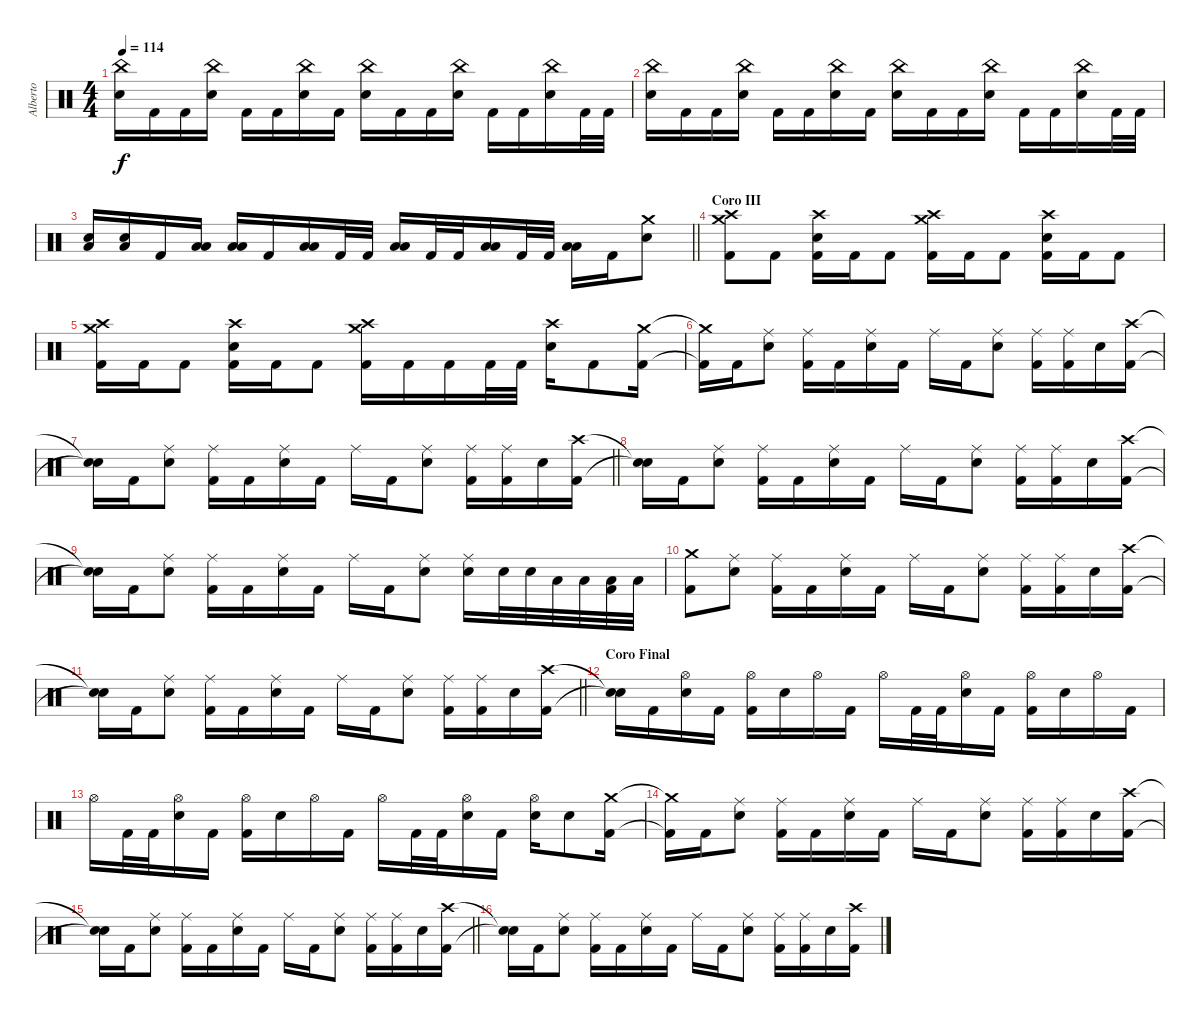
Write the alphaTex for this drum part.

\track ("Alberto" "Alberto") {instrument percussion}
\staff
\articulation defaults
\ts (4 4)
\tempo 114
\clef neutral
\ks c
("China (hit)" "Electric Snare (hit)").16{dy f} "Kick (hit) 2".16 "Kick (hit) 2".16 ("China (hit)" "Electric Snare (hit)").16 "Kick (hit) 2".16 "Kick (hit) 2".16 ("China (hit)" "Electric Snare (hit)").16 "Kick (hit) 2".16 ("China (hit)" "Electric Snare (hit)").16 "Kick (hit) 2".16 "Kick (hit) 2".16 ("China (hit)" "Electric Snare (hit)").16 "Kick (hit) 2".16 "Kick (hit) 2".16 ("China (hit)" "Electric Snare (hit)").16 "Kick (hit) 2".32 "Kick (hit) 2".32 |
("China (hit)" "Electric Snare (hit)").16 "Kick (hit) 2".16 "Kick (hit) 2".16 ("China (hit)" "Electric Snare (hit)").16 "Kick (hit) 2".16 "Kick (hit) 2".16 ("China (hit)" "Electric Snare (hit)").16 "Kick (hit) 2".16 ("China (hit)" "Electric Snare (hit)").16 "Kick (hit) 2".16 "Kick (hit) 2".16 ("China (hit)" "Electric Snare (hit)").16 "Kick (hit) 2".16 "Kick (hit) 2".16 ("China (hit)" "Electric Snare (hit)").16 "Kick (hit) 2".32 "Kick (hit) 2".32 |
\barLineRight lightlight
("Low Tom (hit)" "Electric Snare (hit)").16 ("Low Tom (hit)" "Electric Snare (hit)").16 "Kick (hit) 2".16 ("Low Tom (hit)" "Low Tom (hit)").16 ("Low Tom (hit)" "Low Tom (hit)").16 "Kick (hit) 2".16 ("Low Floor Tom (hit)" "Low Floor Tom (hit)").16 "Kick (hit) 2".32 "Kick (hit) 2".32 ("Low Tom (hit)" "Low Tom (hit)").16 "Kick (hit) 2".32 "Kick (hit) 2".32 ("Low Tom (hit)" "Low Floor Tom (hit)").16 "Kick (hit) 2".32 "Kick (hit) 2".32 ("Low Floor Tom (hit)" "Low Floor Tom (hit)").16 "Kick (hit) 2".16 ("Crash medium (hit)" "Electric Snare (hit)").8 |
\section ("" "Coro III")
("Crash medium (hit)" "Crash high (hit)" "Kick (hit) 2").8 "Kick (hit) 2".8 ("Crash high (hit)" "Electric Snare (hit)" "Kick (hit) 2").16 "Kick (hit) 2".16 "Kick (hit) 2".8 ("Crash medium (hit)" "Crash high (hit)" "Kick (hit) 2").16 "Kick (hit) 2".16 "Kick (hit) 2".8 ("Crash high (hit)" "Electric Snare (hit)" "Kick (hit) 2").16 "Kick (hit) 2".16 "Kick (hit) 2".8 |
("Crash medium (hit)" "Crash high (hit)" "Kick (hit) 2").16 "Kick (hit) 2".16 "Kick (hit) 2".8 ("Crash high (hit)" "Electric Snare (hit)" "Kick (hit) 2").16 "Kick (hit) 2".16 "Kick (hit) 2".8 ("Crash medium (hit)" "Crash high (hit)" "Kick (hit) 2").16 "Kick (hit) 2".16 "Kick (hit) 2".16 "Kick (hit) 2".32 "Kick (hit) 2".32 ("Crash high (hit)" "Electric Snare (hit)").16 "Kick (hit) 2".8 ("Crash medium (hit)" "Kick (hit) 2").16 |
("Crash medium (hit)"{t} "Kick (hit) 2"{t}).16 "Kick (hit) 2".16 ("Ride (middle)" "Electric Snare (hit)").8 ("Ride (middle)" "Kick (hit) 2").16 "Kick (hit) 2".16 ("Ride (middle)" "Electric Snare (hit)").16 "Kick (hit) 2".16 "Ride (middle)".16 "Kick (hit) 2".16 ("Ride (middle)" "Electric Snare (hit)").8 ("Ride (middle)" "Kick (hit) 2").16 ("Ride (middle)" "Kick (hit) 2").16 "Electric Snare (hit)".16 ("Crash high (hit)" "Kick (hit) 2").16 |
\barLineRight lightlight
("Snare (hit)"{t} "Snare (hit)"{t}).16 "Kick (hit) 2".16 ("Ride (middle)" "Electric Snare (hit)").8 ("Ride (middle)" "Kick (hit) 2").16 "Kick (hit) 2".16 ("Ride (middle)" "Electric Snare (hit)").16 "Kick (hit) 2".16 "Ride (middle)".16 "Kick (hit) 2".16 ("Ride (middle)" "Electric Snare (hit)").8 ("Ride (middle)" "Kick (hit) 2").16 ("Ride (middle)" "Kick (hit) 2").16 "Electric Snare (hit)".16 ("Crash high (hit)" "Kick (hit) 2").16 |
("Snare (hit)"{t} "Snare (hit)"{t}).16 "Kick (hit) 2".16 ("Ride (middle)" "Electric Snare (hit)").8 ("Ride (middle)" "Kick (hit) 2").16 "Kick (hit) 2".16 ("Ride (middle)" "Electric Snare (hit)").16 "Kick (hit) 2".16 "Ride (middle)".16 "Kick (hit) 2".16 ("Ride (middle)" "Electric Snare (hit)").8 ("Ride (middle)" "Kick (hit) 2").16 ("Ride (middle)" "Kick (hit) 2").16 "Electric Snare (hit)".16 ("Crash high (hit)" "Kick (hit) 2").16 |
("Snare (hit)"{t} "Snare (hit)"{t}).16 "Kick (hit) 2".16 ("Ride (middle)" "Electric Snare (hit)").8 ("Ride (middle)" "Kick (hit) 2").16 "Kick (hit) 2".16 ("Ride (middle)" "Electric Snare (hit)").16 "Kick (hit) 2".16 "Ride (middle)".16 "Kick (hit) 2".16 ("Ride (middle)" "Electric Snare (hit)").8 ("Ride (middle)" "Electric Snare (hit)").16 "Electric Snare (hit)".32 "Electric Snare (hit)".32 "Low Tom (hit)".32 "Low Tom (hit)".32 ("Low Floor Tom (hit)" "Kick (hit) 2").32 "Low Floor Tom (hit)".32 |
("Crash medium (hit)" "Kick (hit) 2").8 ("Ride (middle)" "Electric Snare (hit)").8 ("Ride (middle)" "Kick (hit) 2").16 "Kick (hit) 2".16 ("Ride (middle)" "Electric Snare (hit)").16 "Kick (hit) 2".16 "Ride (middle)".16 "Kick (hit) 2".16 ("Ride (middle)" "Electric Snare (hit)").8 ("Ride (middle)" "Kick (hit) 2").16 ("Ride (middle)" "Kick (hit) 2").16 "Electric Snare (hit)".16 ("Crash high (hit)" "Kick (hit) 2").16 |
\barLineRight lightlight
("Snare (hit)"{t} "Snare (hit)"{t}).16 "Kick (hit) 2".16 ("Ride (middle)" "Electric Snare (hit)").8 ("Ride (middle)" "Kick (hit) 2").16 "Kick (hit) 2".16 ("Ride (middle)" "Electric Snare (hit)").16 "Kick (hit) 2".16 "Ride (middle)".16 "Kick (hit) 2".16 ("Ride (middle)" "Electric Snare (hit)").8 ("Ride (middle)" "Kick (hit) 2").16 ("Ride (middle)" "Kick (hit) 2").16 "Electric Snare (hit)".16 ("Crash high (hit)" "Kick (hit) 2").16 |
\section ("" "Coro Final")
("Snare (hit)"{t} "Snare (hit)"{t}).16 "Kick (hit) 2".16 ("Hi-Hat (open)" "Electric Snare (hit)").16 "Kick (hit) 2".16 ("Hi-Hat (open)" "Kick (hit) 2").16 "Electric Snare (hit)".16 "Hi-Hat (open)".16 "Kick (hit) 2".16 "Hi-Hat (open)".16 "Kick (hit) 2".32 "Kick (hit) 2".32 ("Hi-Hat (open)" "Electric Snare (hit)").16 "Kick (hit) 2".16 ("Hi-Hat (open)" "Kick (hit) 2").16 "Electric Snare (hit)".16 "Hi-Hat (open)".16 "Kick (hit) 2".16 |
"Hi-Hat (open)".16 "Kick (hit) 2".32 "Kick (hit) 2".32 ("Hi-Hat (open)" "Electric Snare (hit)").16 "Kick (hit) 2".16 ("Hi-Hat (open)" "Kick (hit) 2").16 "Electric Snare (hit)".16 "Hi-Hat (open)".16 "Kick (hit) 2".16 "Hi-Hat (open)".16 "Kick (hit) 2".32 "Kick (hit) 2".32 ("Hi-Hat (open)" "Electric Snare (hit)").16 "Kick (hit) 2".16 ("Hi-Hat (open)" "Electric Snare (hit)").16 "Electric Snare (hit)".8 ("Crash medium (hit)" "Kick (hit) 2").16 |
("Crash medium (hit)"{t} "Kick (hit) 2"{t}).16 "Kick (hit) 2".16 ("Ride (middle)" "Electric Snare (hit)").8 ("Ride (middle)" "Kick (hit) 2").16 "Kick (hit) 2".16 ("Ride (middle)" "Electric Snare (hit)").16 "Kick (hit) 2".16 "Ride (middle)".16 "Kick (hit) 2".16 ("Ride (middle)" "Electric Snare (hit)").8 ("Ride (middle)" "Kick (hit) 2").16 ("Ride (middle)" "Kick (hit) 2").16 "Electric Snare (hit)".16 ("Crash high (hit)" "Kick (hit) 2").16 |
\barLineRight lightlight
("Snare (hit)"{t} "Snare (hit)"{t}).16 "Kick (hit) 2".16 ("Ride (middle)" "Electric Snare (hit)").8 ("Ride (middle)" "Kick (hit) 2").16 "Kick (hit) 2".16 ("Ride (middle)" "Electric Snare (hit)").16 "Kick (hit) 2".16 "Ride (middle)".16 "Kick (hit) 2".16 ("Ride (middle)" "Electric Snare (hit)").8 ("Ride (middle)" "Kick (hit) 2").16 ("Ride (middle)" "Kick (hit) 2").16 "Electric Snare (hit)".16 ("Crash high (hit)" "Kick (hit) 2").16 |
("Snare (hit)"{t} "Snare (hit)"{t}).16 "Kick (hit) 2".16 ("Ride (middle)" "Electric Snare (hit)").8 ("Ride (middle)" "Kick (hit) 2").16 "Kick (hit) 2".16 ("Ride (middle)" "Electric Snare (hit)").16 "Kick (hit) 2".16 "Ride (middle)".16 "Kick (hit) 2".16 ("Ride (middle)" "Electric Snare (hit)").8 ("Ride (middle)" "Kick (hit) 2").16 ("Ride (middle)" "Kick (hit) 2").16 "Electric Snare (hit)".16 ("Crash high (hit)" "Kick (hit) 2").16
